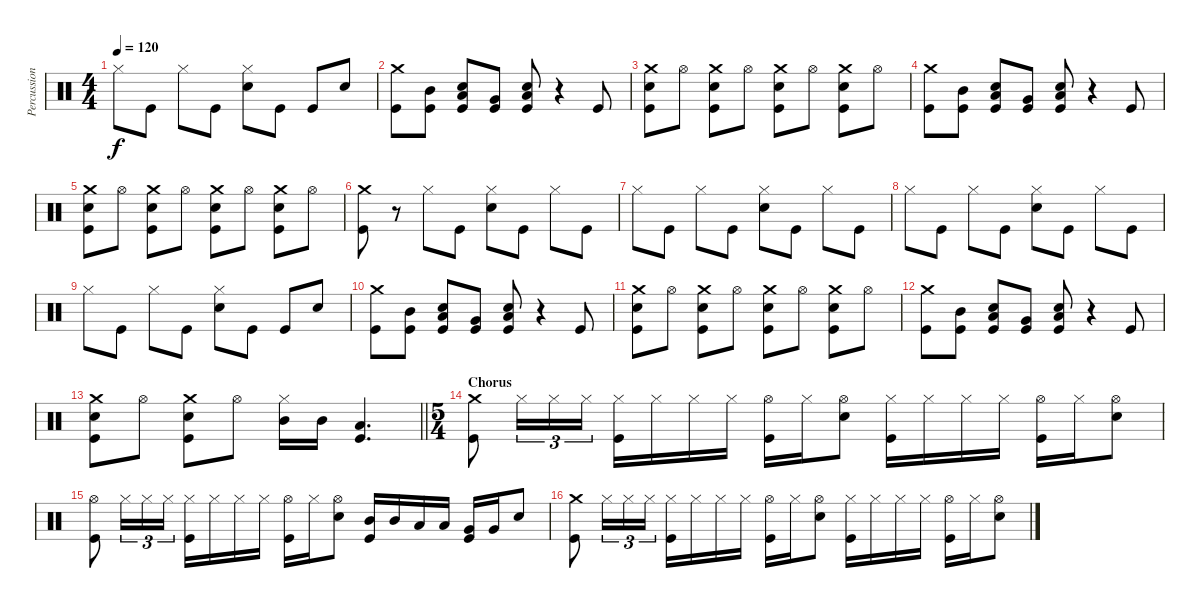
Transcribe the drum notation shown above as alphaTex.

\track ("Percussion" "Percussion") {instrument percussion}
\staff {score}
\articulation defaults
\ts (4 4)
\tempo 120
\clef neutral
\ks c "Hi-Hat (closed)".8{dy f} "Kick (hit)".8 "Hi-Hat (closed)".8 "Kick (hit)".8
("Hi-Hat (closed)" "Snare (hit) 2").8 "Kick (hit)".8 "Kick (hit)".8 "Snare (hit) 2".8 |
("Crash medium (hit)" "Kick (hit)").8 ("Mid Tom (hit)" "Kick (hit)").8 ("Low Tom (hit)" "Snare (hit) 2" "Kick (hit)").8 ("Very Low Tom (hit)" "Kick (hit)").8 ("Low Floor Tom (hit)" "Snare (hit) 2" "Kick (hit)").8 r.4 "Kick (hit)".8 |
("Crash medium (hit)" "Snare (hit) 2" "Kick (hit)").8 "Hi-Hat (open)".8 ("Crash medium (hit)" "Snare (hit) 2" "Kick (hit)").8 "Hi-Hat (open)".8 ("Crash medium (hit)" "Snare (hit) 2" "Kick (hit)").8 "Hi-Hat (open)".8 ("Crash medium (hit)" "Snare (hit) 2" "Kick (hit)").8 "Hi-Hat (open)".8 |
("Crash medium (hit)" "Kick (hit)").8 ("Mid Tom (hit)" "Kick (hit)").8 ("Low Tom (hit)" "Snare (hit) 2" "Kick (hit)").8 ("Very Low Tom (hit)" "Kick (hit)").8 ("Low Floor Tom (hit)" "Snare (hit) 2" "Kick (hit)").8 r.4 "Kick (hit)".8 |
("Crash medium (hit)" "Snare (hit) 2" "Kick (hit)").8 "Hi-Hat (open)".8 ("Crash medium (hit)" "Snare (hit) 2" "Kick (hit)").8 "Hi-Hat (open)".8 ("Crash medium (hit)" "Snare (hit) 2" "Kick (hit)").8 "Hi-Hat (open)".8 ("Crash medium (hit)" "Snare (hit) 2" "Kick (hit)").8 "Hi-Hat (open)".8 |
("Crash medium (hit)" "Kick (hit)").8 r.8 "Hi-Hat (closed)".8 "Kick (hit)".8 ("Hi-Hat (closed)" "Snare (hit) 2").8 "Kick (hit)".8 "Hi-Hat (closed)".8 "Kick (hit)".8 |
"Hi-Hat (closed)".8 "Kick (hit)".8 "Hi-Hat (closed)".8 "Kick (hit)".8 ("Hi-Hat (closed)" "Snare (hit) 2").8 "Kick (hit)".8 "Hi-Hat (closed)".8 "Kick (hit)".8 |
"Hi-Hat (closed)".8 "Kick (hit)".8 "Hi-Hat (closed)".8 "Kick (hit)".8 ("Hi-Hat (closed)" "Snare (hit) 2").8 "Kick (hit)".8 "Hi-Hat (closed)".8 "Kick (hit)".8 |
"Hi-Hat (closed)".8 "Kick (hit)".8 "Hi-Hat (closed)".8 "Kick (hit)".8 ("Hi-Hat (closed)" "Snare (hit) 2").8 "Kick (hit)".8 "Kick (hit)".8 "Snare (hit) 2".8 |
("Crash medium (hit)" "Kick (hit)").8 ("Mid Tom (hit)" "Kick (hit)").8 ("Low Tom (hit)" "Snare (hit) 2" "Kick (hit)").8 ("Very Low Tom (hit)" "Kick (hit)").8 ("Low Floor Tom (hit)" "Snare (hit) 2" "Kick (hit)").8 r.4 "Kick (hit)".8 |
("Crash medium (hit)" "Snare (hit) 2" "Kick (hit)").8 "Hi-Hat (open)".8 ("Crash medium (hit)" "Snare (hit) 2" "Kick (hit)").8 "Hi-Hat (open)".8 ("Crash medium (hit)" "Snare (hit) 2" "Kick (hit)").8 "Hi-Hat (open)".8 ("Crash medium (hit)" "Snare (hit) 2" "Kick (hit)").8 "Hi-Hat (open)".8 |
("Crash medium (hit)" "Kick (hit)").8 ("Mid Tom (hit)" "Kick (hit)").8 ("Low Tom (hit)" "Snare (hit) 2" "Kick (hit)").8 ("Very Low Tom (hit)" "Kick (hit)").8 ("Low Floor Tom (hit)" "Snare (hit) 2" "Kick (hit)").8 r.4 "Kick (hit)".8 |
\barLineRight lightlight
("Crash medium (hit)" "Snare (hit) 2" "Kick (hit)").8 "Hi-Hat (open)".8 ("Crash medium (hit)" "Snare (hit) 2" "Kick (hit)").8 "Hi-Hat (open)".8 ("Mid Tom (hit)" "Hi-Hat (closed)").16 "Mid Tom (hit)".16 ("Low Floor Tom (hit)" "Kick (hit)").4{d} |
\ts (5 4)
\section ("" "Chorus")
("Crash medium (hit)" "Kick (hit)").8 "Hi-Hat (closed)".16{tu (3 2)} "Hi-Hat (closed)".16{tu (3 2)} "Hi-Hat (closed)".16{tu (3 2)} ("Hi-Hat (closed)" "Kick (hit)").16 "Hi-Hat (closed)".16 "Hi-Hat (closed)".16 "Hi-Hat (closed)".16 ("Hi-Hat (open)" "Kick (hit)").16 "Hi-Hat (closed)".16 ("Hi-Hat (open)" "Snare (hit) 2").8 ("Hi-Hat (closed)" "Kick (hit)").16 "Hi-Hat (closed)".16 "Hi-Hat (closed)".16 "Hi-Hat (closed)".16 ("Hi-Hat (open)" "Kick (hit)").16 "Hi-Hat (closed)".16 ("Hi-Hat (open)" "Snare (hit) 2").8 |
("Hi-Hat (open)" "Kick (hit)").8 "Hi-Hat (closed)".16{tu (3 2)} "Hi-Hat (closed)".16{tu (3 2)} "Hi-Hat (closed)".16{tu (3 2)} ("Hi-Hat (closed)" "Kick (hit)").16 "Hi-Hat (closed)".16 "Hi-Hat (closed)".16 "Hi-Hat (closed)".16 ("Hi-Hat (open)" "Kick (hit)").16 "Hi-Hat (closed)".16 ("Hi-Hat (open)" "Snare (hit) 2").8 ("Mid Tom (hit)" "Kick (hit)").16 "Mid Tom (hit)".16 "Low Tom (hit)".16 "Low Tom (hit)".16 ("Very Low Tom (hit)" "Kick (hit)").16 "Very Low Tom (hit)".16 "Snare (hit) 2".8 |
("Crash medium (hit)" "Kick (hit)").8 "Hi-Hat (closed)".16{tu (3 2)} "Hi-Hat (closed)".16{tu (3 2)} "Hi-Hat (closed)".16{tu (3 2)} ("Hi-Hat (closed)" "Kick (hit)").16 "Hi-Hat (closed)".16 "Hi-Hat (closed)".16 "Hi-Hat (closed)".16 ("Hi-Hat (open)" "Kick (hit)").16 "Hi-Hat (closed)".16 ("Hi-Hat (open)" "Snare (hit) 2").8 ("Hi-Hat (closed)" "Kick (hit)").16 "Hi-Hat (closed)".16 "Hi-Hat (closed)".16 "Hi-Hat (closed)".16 ("Hi-Hat (open)" "Kick (hit)").16 "Hi-Hat (closed)".16 ("Hi-Hat (open)" "Snare (hit) 2").8
